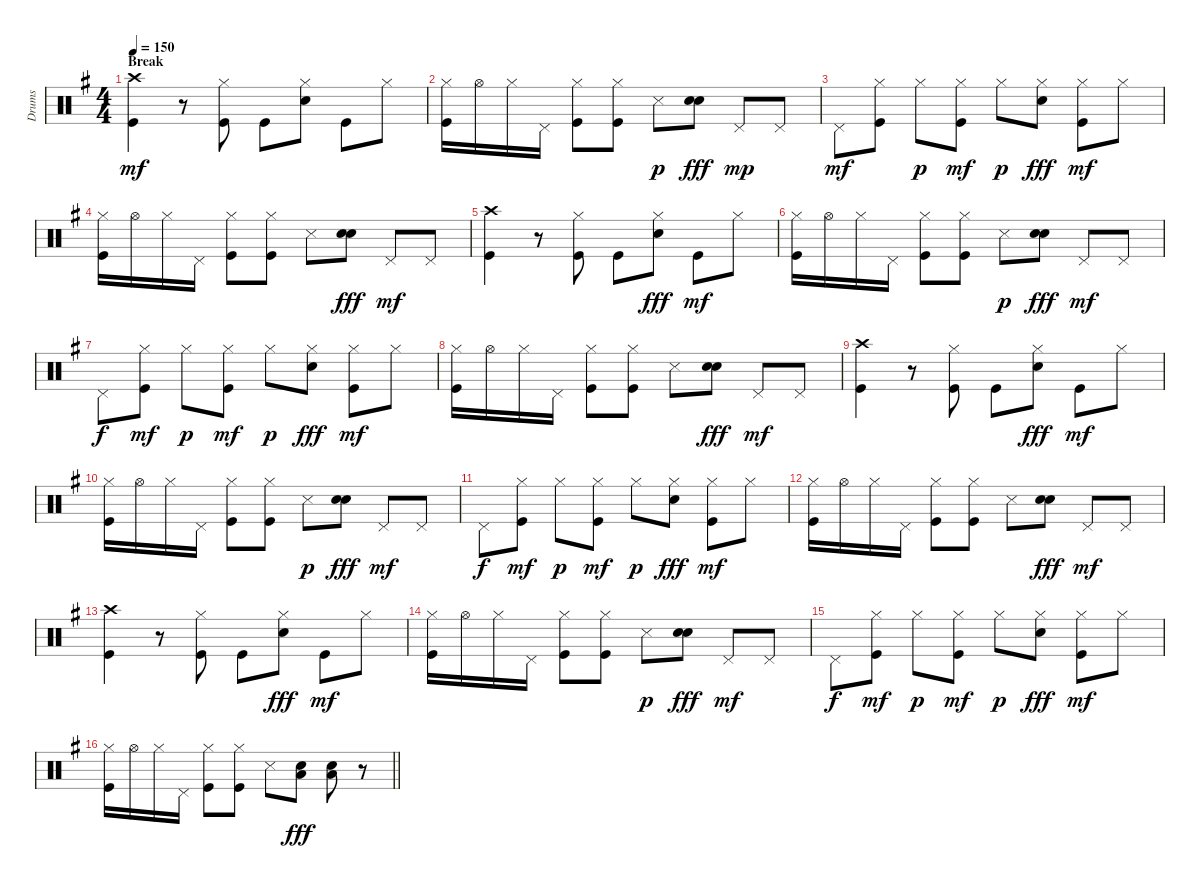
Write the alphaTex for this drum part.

\track ("Drums" "Drums") {instrument percussion}
\staff {score}
\articulation defaults
\ts (4 4)
\section ("" "Break")
\tempo 150
\clef neutral
\ks g
("Crash high (hit)" "Kick (hit)").4{dy mf} r.8 ("Hi-Hat (closed)" "Kick (hit)").8 "Kick (hit)".8 ("Hi-Hat (closed)" "Electric Snare (hit)").8 "Kick (hit)".8 "Hi-Hat (closed)".8 |
("Hi-Hat (closed)" "Kick (hit)").16 "Hi-Hat (open)".16 "Hi-Hat (closed)".16 "Pedal Hi-Hat (hit)".16 ("Hi-Hat (closed)" "Kick (hit)").8 ("Hi-Hat (closed)" "Kick (hit)").8 "Snare (side stick) 3".8{dy p} ("Electric Snare (hit)" "Electric Snare (hit)").8{dy fff} "Pedal Hi-Hat (hit)".8{dy mp} "Pedal Hi-Hat (hit)".8 |
"Pedal Hi-Hat (hit)".8{dy mf} ("Hi-Hat (closed)" "Kick (hit)").8 "Hi-Hat (closed)".8{dy p} ("Hi-Hat (closed)" "Kick (hit)").8{dy mf} "Hi-Hat (closed)".8{dy p} ("Hi-Hat (closed)" "Electric Snare (hit)").8{dy fff} ("Hi-Hat (closed)" "Kick (hit)").8{dy mf} "Hi-Hat (closed)".8 |
("Hi-Hat (closed)" "Kick (hit)").16 "Hi-Hat (open)".16 "Hi-Hat (closed)".16 "Pedal Hi-Hat (hit)".16 ("Hi-Hat (closed)" "Kick (hit)").8 ("Hi-Hat (closed)" "Kick (hit)").8 "Snare (side stick) 3".8 ("Electric Snare (hit)" "Electric Snare (hit)").8{dy fff} "Pedal Hi-Hat (hit)".8{dy mf} "Pedal Hi-Hat (hit)".8 |
("Crash high (hit)" "Kick (hit)").4 r.8 ("Hi-Hat (closed)" "Kick (hit)").8 "Kick (hit)".8 ("Hi-Hat (closed)" "Electric Snare (hit)").8{dy fff} "Kick (hit)".8{dy mf} "Hi-Hat (closed)".8 |
("Hi-Hat (closed)" "Kick (hit)").16 "Hi-Hat (open)".16 "Hi-Hat (closed)".16 "Pedal Hi-Hat (hit)".16 ("Hi-Hat (closed)" "Kick (hit)").8 ("Hi-Hat (closed)" "Kick (hit)").8 "Snare (side stick) 3".8{dy p} ("Electric Snare (hit)" "Electric Snare (hit)").8{dy fff} "Pedal Hi-Hat (hit)".8{dy mf} "Pedal Hi-Hat (hit)".8 |
"Pedal Hi-Hat (hit)".8{dy f} ("Hi-Hat (closed)" "Kick (hit)").8{dy mf} "Hi-Hat (closed)".8{dy p} ("Hi-Hat (closed)" "Kick (hit)").8{dy mf} "Hi-Hat (closed)".8{dy p} ("Hi-Hat (closed)" "Electric Snare (hit)").8{dy fff} ("Hi-Hat (closed)" "Kick (hit)").8{dy mf} "Hi-Hat (closed)".8 |
("Hi-Hat (closed)" "Kick (hit)").16 "Hi-Hat (open)".16 "Hi-Hat (closed)".16 "Pedal Hi-Hat (hit)".16 ("Hi-Hat (closed)" "Kick (hit)").8 ("Hi-Hat (closed)" "Kick (hit)").8 "Snare (side stick) 3".8 ("Electric Snare (hit)" "Electric Snare (hit)").8{dy fff} "Pedal Hi-Hat (hit)".8{dy mf} "Pedal Hi-Hat (hit)".8 |
("Crash high (hit)" "Kick (hit)").4 r.8 ("Hi-Hat (closed)" "Kick (hit)").8 "Kick (hit)".8 ("Hi-Hat (closed)" "Electric Snare (hit)").8{dy fff} "Kick (hit)".8{dy mf} "Hi-Hat (closed)".8 |
("Hi-Hat (closed)" "Kick (hit)").16 "Hi-Hat (open)".16 "Hi-Hat (closed)".16 "Pedal Hi-Hat (hit)".16 ("Hi-Hat (closed)" "Kick (hit)").8 ("Hi-Hat (closed)" "Kick (hit)").8 "Snare (side stick) 3".8{dy p} ("Electric Snare (hit)" "Electric Snare (hit)").8{dy fff} "Pedal Hi-Hat (hit)".8{dy mf} "Pedal Hi-Hat (hit)".8 |
"Pedal Hi-Hat (hit)".8{dy f} ("Hi-Hat (closed)" "Kick (hit)").8{dy mf} "Hi-Hat (closed)".8{dy p} ("Hi-Hat (closed)" "Kick (hit)").8{dy mf} "Hi-Hat (closed)".8{dy p} ("Hi-Hat (closed)" "Electric Snare (hit)").8{dy fff} ("Hi-Hat (closed)" "Kick (hit)").8{dy mf} "Hi-Hat (closed)".8 |
("Hi-Hat (closed)" "Kick (hit)").16 "Hi-Hat (open)".16 "Hi-Hat (closed)".16 "Pedal Hi-Hat (hit)".16 ("Hi-Hat (closed)" "Kick (hit)").8 ("Hi-Hat (closed)" "Kick (hit)").8 "Snare (side stick) 3".8 ("Electric Snare (hit)" "Electric Snare (hit)").8{dy fff} "Pedal Hi-Hat (hit)".8{dy mf} "Pedal Hi-Hat (hit)".8 |
("Crash high (hit)" "Kick (hit)").4 r.8 ("Hi-Hat (closed)" "Kick (hit)").8 "Kick (hit)".8 ("Hi-Hat (closed)" "Electric Snare (hit)").8{dy fff} "Kick (hit)".8{dy mf} "Hi-Hat (closed)".8 |
("Hi-Hat (closed)" "Kick (hit)").16 "Hi-Hat (open)".16 "Hi-Hat (closed)".16 "Pedal Hi-Hat (hit)".16 ("Hi-Hat (closed)" "Kick (hit)").8 ("Hi-Hat (closed)" "Kick (hit)").8 "Snare (side stick) 3".8{dy p} ("Electric Snare (hit)" "Electric Snare (hit)").8{dy fff} "Pedal Hi-Hat (hit)".8{dy mf} "Pedal Hi-Hat (hit)".8 |
"Pedal Hi-Hat (hit)".8{dy f} ("Hi-Hat (closed)" "Kick (hit)").8{dy mf} "Hi-Hat (closed)".8{dy p} ("Hi-Hat (closed)" "Kick (hit)").8{dy mf} "Hi-Hat (closed)".8{dy p} ("Hi-Hat (closed)" "Electric Snare (hit)").8{dy fff} ("Hi-Hat (closed)" "Kick (hit)").8{dy mf} "Hi-Hat (closed)".8 |
\barLineRight lightlight
("Hi-Hat (closed)" "Kick (hit)").16 "Hi-Hat (open)".16 "Hi-Hat (closed)".16 "Pedal Hi-Hat (hit)".16 ("Hi-Hat (closed)" "Kick (hit)").8 ("Hi-Hat (closed)" "Kick (hit)").8 "Snare (side stick) 3".8 ("Low Tom (hit)" "Electric Snare (hit)").8{dy fff} ("Low Tom (hit)" "Electric Snare (hit)").8 r.8
